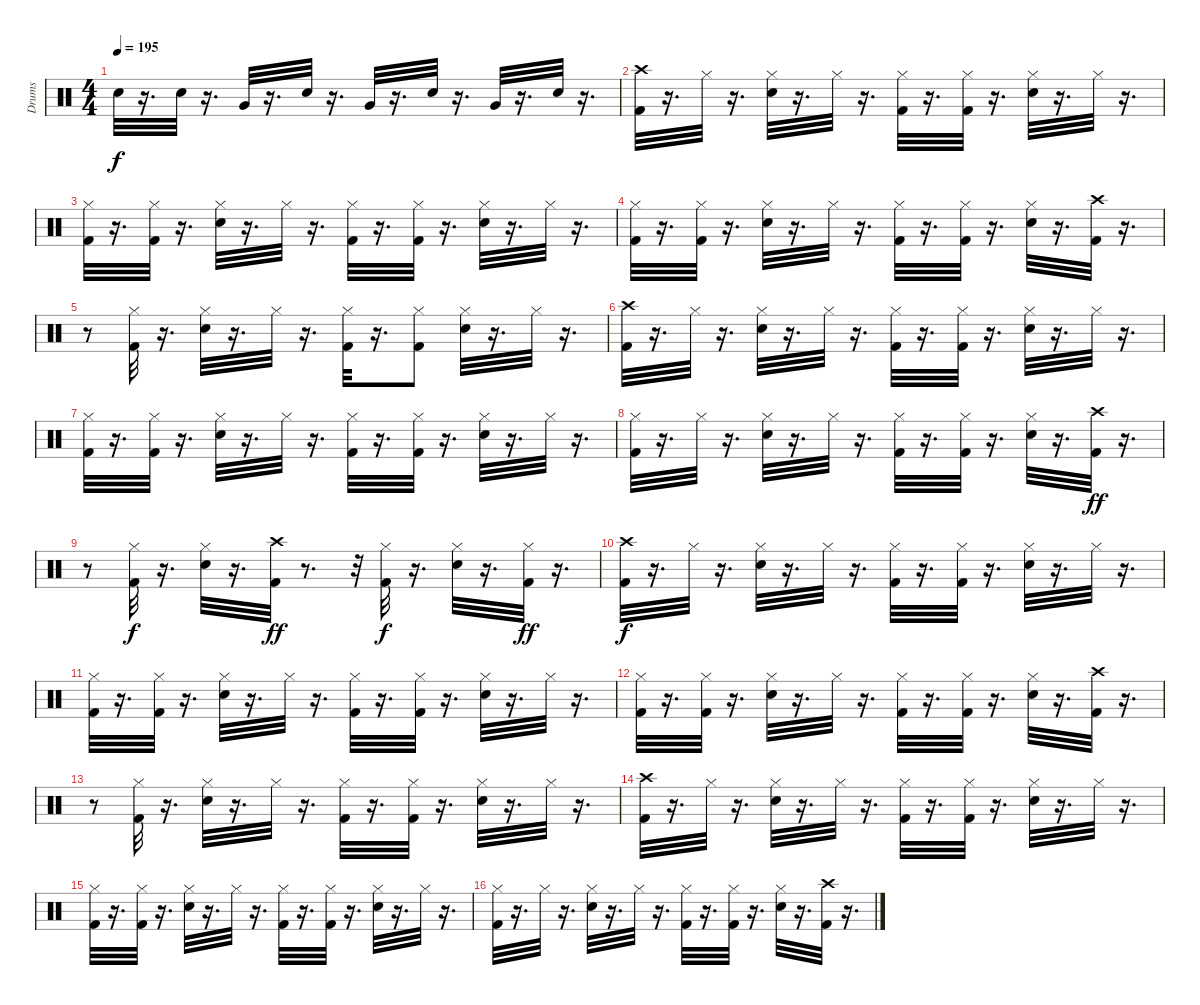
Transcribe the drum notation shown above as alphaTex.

\track ("Drums" "Drums") {instrument percussion}
\staff {score}
\articulation defaults
\ts (4 4)
\tempo 195
\clef neutral
\ks c "Snare (hit) 2".32{dy f}
r.16{d} "Snare (hit) 2".32 r.16{d} "Very Low Tom (hit)".32 r.16{d} "Snare (hit) 2".32 r.16{d} "Very Low Tom (hit)".32 r.16{d} "Snare (hit) 2".32 r.16{d} "Very Low Tom (hit)".32 r.16{d} "Snare (hit) 2".32 r.16{d} |
("Crash high (hit)" "Kick (hit) 2").32 r.16{d} "Hi-Hat (closed)".32 r.16{d} ("Snare (hit) 2" "Hi-Hat (closed)").32 r.16{d} "Hi-Hat (closed)".32 r.16{d} ("Kick (hit) 2" "Hi-Hat (closed)").32 r.16{d} ("Kick (hit) 2" "Hi-Hat (closed)").32 r.16{d} ("Snare (hit) 2" "Hi-Hat (closed)").32 r.16{d} "Hi-Hat (closed)".32 r.16{d} |
("Hi-Hat (closed)" "Kick (hit) 2").32 r.16{d} ("Hi-Hat (closed)" "Kick (hit) 2").32 r.16{d} ("Hi-Hat (closed)" "Snare (hit) 2").32 r.16{d} "Hi-Hat (closed)".32 r.16{d} ("Hi-Hat (closed)" "Kick (hit) 2").32 r.16{d} ("Hi-Hat (closed)" "Kick (hit) 2").32 r.16{d} ("Hi-Hat (closed)" "Snare (hit) 2").32 r.16{d} "Hi-Hat (closed)".32 r.16{d} |
("Hi-Hat (closed)" "Kick (hit) 2").32 r.16{d} ("Hi-Hat (closed)" "Kick (hit) 2").32 r.16{d} ("Hi-Hat (closed)" "Snare (hit) 2").32 r.16{d} "Hi-Hat (closed)".32 r.16{d} ("Hi-Hat (closed)" "Kick (hit) 2").32 r.16{d} ("Hi-Hat (closed)" "Kick (hit) 2").32 r.16{d} ("Hi-Hat (closed)" "Snare (hit) 2").32 r.16{d} ("Crash high (hit)" "Kick (hit) 2").32 r.16{d} |
r.8 ("Hi-Hat (closed)" "Kick (hit) 2").32 r.16{d} ("Hi-Hat (closed)" "Snare (hit) 2").32 r.16{d} "Hi-Hat (closed)".32 r.16{d} ("Hi-Hat (closed)" "Kick (hit) 2").32 r.16{d} ("Hi-Hat (closed)" "Kick (hit) 2").8 ("Hi-Hat (closed)" "Snare (hit) 2").32 r.16{d} "Hi-Hat (closed)".32 r.16{d} |
("Crash high (hit)" "Kick (hit) 2").32 r.16{d} "Hi-Hat (closed)".32 r.16{d} ("Hi-Hat (closed)" "Snare (hit) 2").32 r.16{d} "Hi-Hat (closed)".32 r.16{d} ("Hi-Hat (closed)" "Kick (hit) 2").32 r.16{d} ("Hi-Hat (closed)" "Kick (hit) 2").32 r.16{d} ("Hi-Hat (closed)" "Snare (hit) 2").32 r.16{d} "Hi-Hat (closed)".32 r.16{d} |
("Kick (hit) 2" "Hi-Hat (closed)").32 r.16{d} ("Kick (hit) 2" "Hi-Hat (closed)").32 r.16{d} ("Snare (hit) 2" "Hi-Hat (closed)").32 r.16{d} "Hi-Hat (closed)".32 r.16{d} ("Kick (hit) 2" "Hi-Hat (closed)").32 r.16{d} ("Kick (hit) 2" "Hi-Hat (closed)").32 r.16{d} ("Snare (hit) 2" "Hi-Hat (closed)").32 r.16{d} "Hi-Hat (closed)".32 r.16{d} |
("Kick (hit) 2" "Hi-Hat (closed)").32 r.16{d} "Hi-Hat (closed)".32 r.16{d} ("Snare (hit) 2" "Hi-Hat (closed)").32 r.16{d} "Hi-Hat (closed)".32 r.16{d} ("Kick (hit) 2" "Hi-Hat (closed)").32 r.16{d} ("Kick (hit) 2" "Hi-Hat (closed)").32 r.16{d} ("Snare (hit) 2" "Hi-Hat (closed)").32 r.16{d} ("Kick (hit) 2" "Crash high (hit)").32{dy ff} r.16{d} |
r.8 ("Hi-Hat (closed)" "Kick (hit) 2").32{dy f} r.16{d} ("Hi-Hat (closed)" "Snare (hit) 2").32 r.16{d} ("Crash high (hit)" "Kick (hit) 2").32{dy ff} r.8{d} r.32 ("Hi-Hat (closed)" "Kick (hit) 2").32{dy f} r.16{d} ("Hi-Hat (closed)" "Snare (hit) 2").32 r.16{d} ("Hi-Hat (closed)" "Kick (hit) 2").32{dy ff} r.16{d} |
("Kick (hit) 2" "Crash high (hit)").32{dy f} r.16{d} "Hi-Hat (closed)".32 r.16{d} ("Snare (hit) 2" "Hi-Hat (closed)").32 r.16{d} "Hi-Hat (closed)".32 r.16{d} ("Kick (hit) 2" "Hi-Hat (closed)").32 r.16{d} ("Kick (hit) 2" "Hi-Hat (closed)").32 r.16{d} ("Snare (hit) 2" "Hi-Hat (closed)").32 r.16{d} "Hi-Hat (closed)".32 r.16{d} |
("Hi-Hat (closed)" "Kick (hit) 2").32 r.16{d} ("Hi-Hat (closed)" "Kick (hit) 2").32 r.16{d} ("Hi-Hat (closed)" "Snare (hit) 2").32 r.16{d} "Hi-Hat (closed)".32 r.16{d} ("Hi-Hat (closed)" "Kick (hit) 2").32 r.16{d} ("Hi-Hat (closed)" "Kick (hit) 2").32 r.16{d} ("Hi-Hat (closed)" "Snare (hit) 2").32 r.16{d} "Hi-Hat (closed)".32 r.16{d} |
("Hi-Hat (closed)" "Kick (hit) 2").32 r.16{d} ("Hi-Hat (closed)" "Kick (hit) 2").32 r.16{d} ("Hi-Hat (closed)" "Snare (hit) 2").32 r.16{d} "Hi-Hat (closed)".32 r.16{d} ("Hi-Hat (closed)" "Kick (hit) 2").32 r.16{d} ("Hi-Hat (closed)" "Kick (hit) 2").32 r.16{d} ("Hi-Hat (closed)" "Snare (hit) 2").32 r.16{d} ("Crash high (hit)" "Kick (hit) 2").32 r.16{d} |
r.8 ("Hi-Hat (closed)" "Kick (hit) 2").32 r.16{d} ("Hi-Hat (closed)" "Snare (hit) 2").32 r.16{d} "Hi-Hat (closed)".32 r.16{d} ("Hi-Hat (closed)" "Kick (hit) 2").32 r.16{d} ("Hi-Hat (closed)" "Kick (hit) 2").32 r.16{d} ("Hi-Hat (closed)" "Snare (hit) 2").32 r.16{d} "Hi-Hat (closed)".32 r.16{d} |
("Crash high (hit)" "Kick (hit) 2").32 r.16{d} "Hi-Hat (closed)".32 r.16{d} ("Snare (hit) 2" "Hi-Hat (closed)").32 r.16{d} "Hi-Hat (closed)".32 r.16{d} ("Kick (hit) 2" "Hi-Hat (closed)").32 r.16{d} ("Kick (hit) 2" "Hi-Hat (closed)").32 r.16{d} ("Snare (hit) 2" "Hi-Hat (closed)").32 r.16{d} "Hi-Hat (closed)".32 r.16{d} |
("Hi-Hat (closed)" "Kick (hit) 2").32 r.16{d} ("Hi-Hat (closed)" "Kick (hit) 2").32 r.16{d} ("Hi-Hat (closed)" "Snare (hit) 2").32 r.16{d} "Hi-Hat (closed)".32 r.16{d} ("Hi-Hat (closed)" "Kick (hit) 2").32 r.16{d} ("Hi-Hat (closed)" "Kick (hit) 2").32 r.16{d} ("Hi-Hat (closed)" "Snare (hit) 2").32 r.16{d} "Hi-Hat (closed)".32 r.16{d} |
("Hi-Hat (closed)" "Kick (hit) 2").32 r.16{d} "Hi-Hat (closed)".32 r.16{d} ("Hi-Hat (closed)" "Snare (hit) 2").32 r.16{d} "Hi-Hat (closed)".32 r.16{d} ("Hi-Hat (closed)" "Kick (hit) 2").32 r.16{d} ("Hi-Hat (closed)" "Kick (hit) 2").32 r.16{d} ("Hi-Hat (closed)" "Snare (hit) 2").32 r.16{d} ("Crash high (hit)" "Kick (hit) 2").32 r.16{d}
